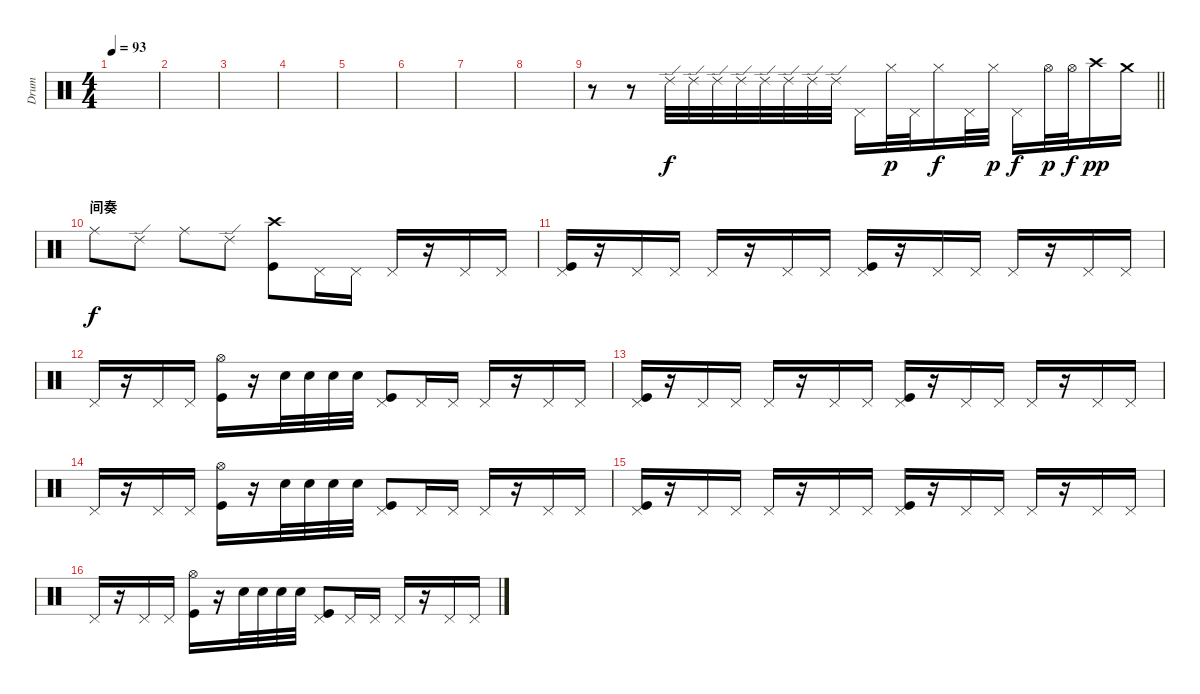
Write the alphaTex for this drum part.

\track ("Drum" "Drum") {instrument percussion}
\staff {score}
\articulation defaults
\ts (4 4)
\tempo 93
\clef neutral
\ks c
|
|
|
|
|
|
|
|
\barLineRight lightlight
r.8 r.8 "Ride (edge) 2".32 "Ride (edge) 2".32 "Ride (edge) 2".32 "Ride (edge) 2".32 "Ride (edge) 2".32 "Ride (edge) 2".32 "Ride (edge) 2".32 "Ride (edge) 2".32 "Pedal Hi-Hat (hit)".16{dy f} "Hi-Hat (closed)".32{dy p} "Pedal Hi-Hat (hit)".32 "Hi-Hat (closed)".16{dy f} "Pedal Hi-Hat (hit)".32 "Hi-Hat (closed)".32{dy p} "Pedal Hi-Hat (hit)".16{dy f} "Hi-Hat (open)".32{dy p} "Hi-Hat (open)".32{dy f} "Crash high (hit)".16{dy pp} "Crash medium (hit)".16 |
\section ("" "间奏")
"Ride (middle)".8{dy f} "Ride (edge) 2".8 "Ride (middle)".8 "Ride (edge) 2".8 ("Crash high (hit)" "Kick (hit)").8 "Pedal Hi-Hat (hit)".16 "Pedal Hi-Hat (hit)".16 "Pedal Hi-Hat (hit)".16 r.16 "Pedal Hi-Hat (hit)".16 "Pedal Hi-Hat (hit)".16 |
("Pedal Hi-Hat (hit)" "Kick (hit)").16 r.16 "Pedal Hi-Hat (hit)".16 "Pedal Hi-Hat (hit)".16 "Pedal Hi-Hat (hit)".16 r.16 "Pedal Hi-Hat (hit)".16 "Pedal Hi-Hat (hit)".16 ("Pedal Hi-Hat (hit)" "Kick (hit)").16 r.16 "Pedal Hi-Hat (hit)".16 "Pedal Hi-Hat (hit)".16 "Pedal Hi-Hat (hit)".16 r.16 "Pedal Hi-Hat (hit)".16 "Pedal Hi-Hat (hit)".16 |
"Pedal Hi-Hat (hit)".16 r.16 "Pedal Hi-Hat (hit)".16 "Pedal Hi-Hat (hit)".16 ("Hi-Hat (open)" "Kick (hit)").16 r.16 "Snare (hit) 2".32 "Snare (hit) 2".32 "Snare (hit) 2".32 "Snare (hit) 2".32 ("Pedal Hi-Hat (hit)" "Kick (hit)").8 "Pedal Hi-Hat (hit)".16 "Pedal Hi-Hat (hit)".16 "Pedal Hi-Hat (hit)".16 r.16 "Pedal Hi-Hat (hit)".16 "Pedal Hi-Hat (hit)".16 |
("Pedal Hi-Hat (hit)" "Kick (hit)").16 r.16 "Pedal Hi-Hat (hit)".16 "Pedal Hi-Hat (hit)".16 "Pedal Hi-Hat (hit)".16 r.16 "Pedal Hi-Hat (hit)".16 "Pedal Hi-Hat (hit)".16 ("Pedal Hi-Hat (hit)" "Kick (hit)").16 r.16 "Pedal Hi-Hat (hit)".16 "Pedal Hi-Hat (hit)".16 "Pedal Hi-Hat (hit)".16 r.16 "Pedal Hi-Hat (hit)".16 "Pedal Hi-Hat (hit)".16 |
"Pedal Hi-Hat (hit)".16 r.16 "Pedal Hi-Hat (hit)".16 "Pedal Hi-Hat (hit)".16 ("Hi-Hat (open)" "Kick (hit)").16 r.16 "Snare (hit) 2".32 "Snare (hit) 2".32 "Snare (hit) 2".32 "Snare (hit) 2".32 ("Pedal Hi-Hat (hit)" "Kick (hit)").8 "Pedal Hi-Hat (hit)".16 "Pedal Hi-Hat (hit)".16 "Pedal Hi-Hat (hit)".16 r.16 "Pedal Hi-Hat (hit)".16 "Pedal Hi-Hat (hit)".16 |
("Pedal Hi-Hat (hit)" "Kick (hit)").16 r.16 "Pedal Hi-Hat (hit)".16 "Pedal Hi-Hat (hit)".16 "Pedal Hi-Hat (hit)".16 r.16 "Pedal Hi-Hat (hit)".16 "Pedal Hi-Hat (hit)".16 ("Pedal Hi-Hat (hit)" "Kick (hit)").16 r.16 "Pedal Hi-Hat (hit)".16 "Pedal Hi-Hat (hit)".16 "Pedal Hi-Hat (hit)".16 r.16 "Pedal Hi-Hat (hit)".16 "Pedal Hi-Hat (hit)".16 |
"Pedal Hi-Hat (hit)".16 r.16 "Pedal Hi-Hat (hit)".16 "Pedal Hi-Hat (hit)".16 ("Hi-Hat (open)" "Kick (hit)").16 r.16 "Snare (hit) 2".32 "Snare (hit) 2".32 "Snare (hit) 2".32 "Snare (hit) 2".32 ("Pedal Hi-Hat (hit)" "Kick (hit)").8 "Pedal Hi-Hat (hit)".16 "Pedal Hi-Hat (hit)".16 "Pedal Hi-Hat (hit)".16 r.16 "Pedal Hi-Hat (hit)".16 "Pedal Hi-Hat (hit)".16
